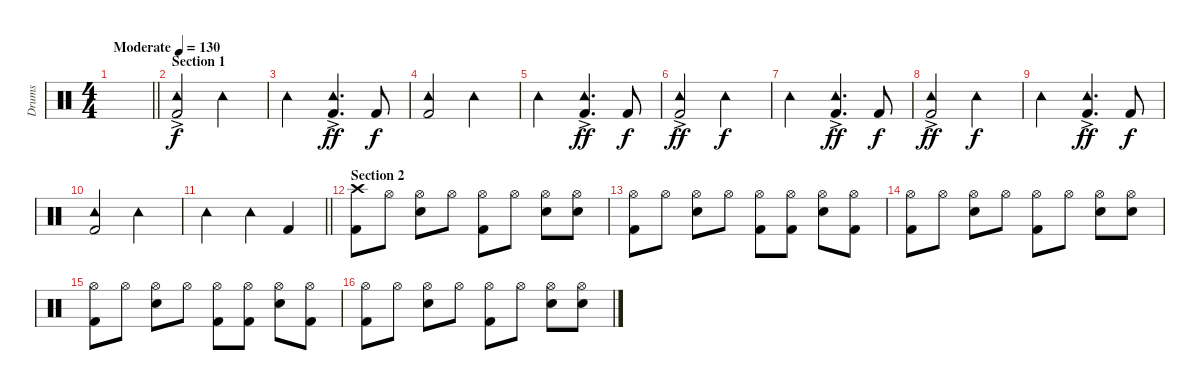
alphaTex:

\track ("Drums" "Drums") {instrument percussion}
\staff {score}
\articulation defaults
\ts (4 4)
\tempo (130 "Moderate")
\clef neutral
\barLineRight lightlight
\ks c
|
\section ("" "Section 1")
("Tambourine (hit)" "Kick (hit) 2"{ac}).2 "Tambourine (hit)".2{dy f} |
"Tambourine (hit)".2 ("Tambourine (hit)" "Kick (hit) 2"{ac}).4{d dy ff} "Kick (hit) 2".8{dy f} |
("Tambourine (hit)" "Kick (hit) 2").2 "Tambourine (hit)".2 |
"Tambourine (hit)".2 ("Tambourine (hit)" "Kick (hit) 2"{ac}).4{d dy ff} "Kick (hit) 2".8{dy f} |
("Tambourine (hit)" "Kick (hit) 2"{ac}).2{dy ff} "Tambourine (hit)".2{dy f} |
"Tambourine (hit)".2 ("Tambourine (hit)" "Kick (hit) 2"{ac}).4{d dy ff} "Kick (hit) 2".8{dy f} |
("Tambourine (hit)" "Kick (hit) 2"{ac}).2{dy ff} "Tambourine (hit)".2{dy f} |
"Tambourine (hit)".2 ("Tambourine (hit)" "Kick (hit) 2"{ac}).4{d dy ff} "Kick (hit) 2".8{dy f} |
("Tambourine (hit)" "Kick (hit) 2").2 "Tambourine (hit)".2 |
\barLineRight lightlight "Tambourine (hit)".2 "Tambourine (hit)".4 "Kick (hit) 2".4
|
\section ("" "Section 2")
("Crash high (hit)" "Kick (hit) 2").8 "Hi-Hat (open)".8 ("Hi-Hat (open)" "Electric Snare (hit)").8 "Hi-Hat (open)".8 ("Hi-Hat (open)" "Kick (hit) 2").8 "Hi-Hat (open)".8 ("Hi-Hat (open)" "Electric Snare (hit)").8 ("Hi-Hat (open)" "Electric Snare (hit)").8 |
("Hi-Hat (open)" "Kick (hit) 2").8 "Hi-Hat (open)".8 ("Hi-Hat (open)" "Electric Snare (hit)").8 "Hi-Hat (open)".8 ("Hi-Hat (open)" "Kick (hit) 2").8 ("Hi-Hat (open)" "Kick (hit) 2").8 ("Hi-Hat (open)" "Electric Snare (hit)").8 ("Hi-Hat (open)" "Kick (hit) 2").8 |
("Hi-Hat (open)" "Kick (hit) 2").8 "Hi-Hat (open)".8 ("Hi-Hat (open)" "Electric Snare (hit)").8 "Hi-Hat (open)".8 ("Hi-Hat (open)" "Kick (hit) 2").8 "Hi-Hat (open)".8 ("Hi-Hat (open)" "Electric Snare (hit)").8 ("Hi-Hat (open)" "Electric Snare (hit)").8 |
("Hi-Hat (open)" "Kick (hit) 2").8 "Hi-Hat (open)".8 ("Hi-Hat (open)" "Electric Snare (hit)").8 "Hi-Hat (open)".8 ("Hi-Hat (open)" "Kick (hit) 2").8 ("Hi-Hat (open)" "Kick (hit) 2").8 ("Hi-Hat (open)" "Electric Snare (hit)").8 ("Hi-Hat (open)" "Kick (hit) 2").8 |
("Hi-Hat (open)" "Kick (hit) 2").8 "Hi-Hat (open)".8 ("Hi-Hat (open)" "Electric Snare (hit)").8 "Hi-Hat (open)".8 ("Hi-Hat (open)" "Kick (hit) 2").8 "Hi-Hat (open)".8 ("Hi-Hat (open)" "Electric Snare (hit)").8 ("Hi-Hat (open)" "Electric Snare (hit)").8
